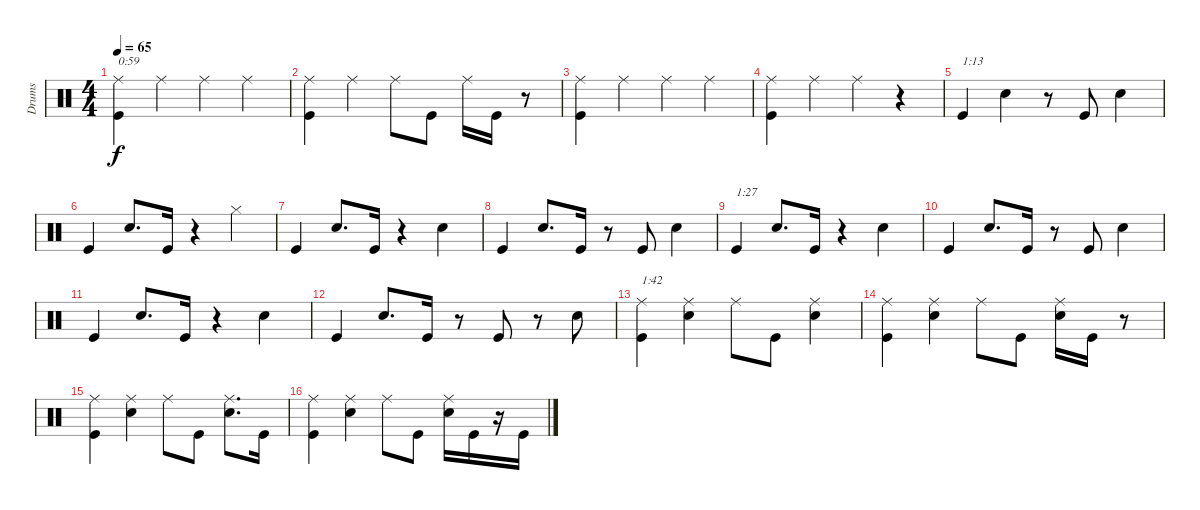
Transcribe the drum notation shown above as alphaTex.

\track ("Drums" "Drums") {instrument percussion}
\staff {score}
\articulation defaults
\ts (4 4)
\tempo 65
\clef neutral
\ks c
("Kick (hit)" "Ride (middle)").4{txt "0:59" dy f} "Ride (middle)".4 "Ride (middle)".4 "Ride (middle)".4 |
("Kick (hit)" "Ride (middle)").4 "Ride (middle)".4 "Ride (middle)".8 "Kick (hit)".8 "Ride (middle)".16 "Kick (hit)".16 r.8 |
("Kick (hit)" "Ride (middle)").4 "Ride (middle)".4 "Ride (middle)".4 "Ride (middle)".4 |
("Kick (hit)" "Ride (middle)").4 "Ride (middle)".4 "Ride (middle)".4 r.4 |
"Kick (hit)".4{txt "1:13"} "Snare (hit) 2".4 r.8 "Kick (hit)".8 "Snare (hit) 2".4 |
"Kick (hit)".4 "Snare (hit) 2".8{d} "Kick (hit)".16 r.4 "Hi-Hat (closed)".4 |
"Kick (hit)".4 "Snare (hit) 2".8{d} "Kick (hit)".16 r.4 "Snare (hit) 2".4 |
"Kick (hit)".4 "Snare (hit) 2".8{d} "Kick (hit)".16 r.8 "Kick (hit)".8 "Snare (hit) 2".4 |
"Kick (hit)".4{txt "1:27"} "Snare (hit) 2".8{d} "Kick (hit)".16 r.4 "Snare (hit) 2".4 |
"Kick (hit)".4 "Snare (hit) 2".8{d} "Kick (hit)".16 r.8 "Kick (hit)".8 "Snare (hit) 2".4 |
"Kick (hit)".4 "Snare (hit) 2".8{d} "Kick (hit)".16 r.4 "Snare (hit) 2".4 |
"Kick (hit)".4 "Snare (hit) 2".8{d} "Kick (hit)".16 r.8 "Kick (hit)".8 r.8 "Snare (hit) 2".8 |
("Kick (hit)" "Ride (middle)").4{txt "1:42"} ("Ride (middle)" "Snare (hit) 2").4 "Ride (middle)".8 "Kick (hit)".8 ("Ride (middle)" "Snare (hit) 2").4 |
("Kick (hit)" "Ride (middle)").4 ("Snare (hit) 2" "Ride (middle)").4 "Ride (middle)".8 "Kick (hit)".8 ("Snare (hit) 2" "Ride (middle)").16 "Kick (hit)".16 r.8 |
("Kick (hit)" "Ride (middle)").4 ("Ride (middle)" "Snare (hit) 2").4 "Ride (middle)".8 "Kick (hit)".8 ("Ride (middle)" "Snare (hit) 2").8{d} "Kick (hit)".16 |
("Kick (hit)" "Ride (middle)").4 ("Snare (hit) 2" "Ride (middle)").4 "Ride (middle)".8 "Kick (hit)".8 ("Snare (hit) 2" "Ride (middle)").16 "Kick (hit)".16 r.16 "Kick (hit)".16
